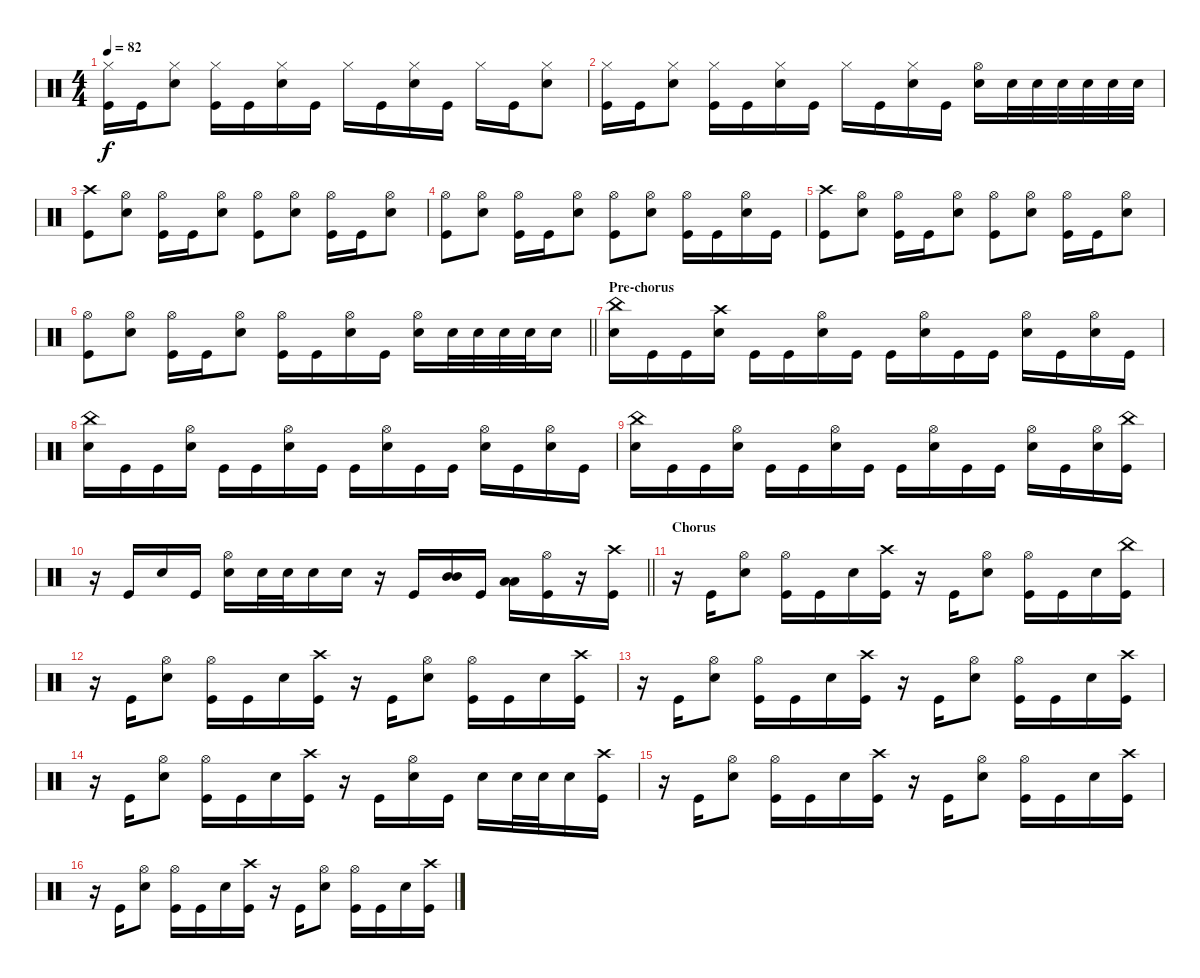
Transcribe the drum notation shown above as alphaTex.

\track "" {instrument percussion}
\staff {score}
\articulation defaults
\ts (4 4)
\tempo 82
\clef neutral
\ks c
("Hi-Hat (closed)" "Kick (hit)").16{dy f} "Kick (hit)".16 ("Snare (hit) 2" "Hi-Hat (closed)").8 ("Hi-Hat (closed)" "Kick (hit)").16 "Kick (hit)".16 ("Snare (hit) 2" "Hi-Hat (closed)").16 "Kick (hit)".16 "Hi-Hat (closed)".16 "Kick (hit)".16 ("Snare (hit) 2" "Hi-Hat (closed)").16 "Kick (hit)".16 "Hi-Hat (closed)".16 "Kick (hit)".16 ("Snare (hit) 2" "Hi-Hat (closed)").8 |
("Hi-Hat (closed)" "Kick (hit)").16 "Kick (hit)".16 ("Snare (hit) 2" "Hi-Hat (closed)").8 ("Hi-Hat (closed)" "Kick (hit)").16 "Kick (hit)".16 ("Snare (hit) 2" "Hi-Hat (closed)").16 "Kick (hit)".16 "Hi-Hat (closed)".16 "Kick (hit)".16 ("Snare (hit) 2" "Hi-Hat (closed)").16 "Kick (hit)".16 ("Snare (hit) 2" "Hi-Hat (open)").16 "Snare (hit) 2".32 "Snare (hit) 2".32 "Snare (hit) 2".32 "Snare (hit) 2".32 "Snare (hit) 2".32 "Snare (hit) 2".32 |
("Crash high (hit)" "Kick (hit)").8{txt ""} ("Snare (hit) 2" "Hi-Hat (open)").8 ("Hi-Hat (open)" "Kick (hit)").16 "Kick (hit)".16 ("Snare (hit) 2" "Hi-Hat (open)").8 ("Kick (hit)" "Hi-Hat (open)").8 ("Snare (hit) 2" "Hi-Hat (open)").8 ("Kick (hit)" "Hi-Hat (open)").16 "Kick (hit)".16 ("Snare (hit) 2" "Hi-Hat (open)").8 |
("Hi-Hat (open)" "Kick (hit)").8 ("Snare (hit) 2" "Hi-Hat (open)").8 ("Hi-Hat (open)" "Kick (hit)").16 "Kick (hit)".16 ("Snare (hit) 2" "Hi-Hat (open)").8 ("Kick (hit)" "Hi-Hat (open)").8 ("Snare (hit) 2" "Hi-Hat (open)").8 ("Kick (hit)" "Hi-Hat (open)").16 "Kick (hit)".16 ("Snare (hit) 2" "Hi-Hat (open)").16 "Kick (hit)".16 |
("Crash high (hit)" "Kick (hit)").8 ("Snare (hit) 2" "Hi-Hat (open)").8 ("Hi-Hat (open)" "Kick (hit)").16 "Kick (hit)".16 ("Snare (hit) 2" "Hi-Hat (open)").8 ("Kick (hit)" "Hi-Hat (open)").8 ("Snare (hit) 2" "Hi-Hat (open)").8 ("Kick (hit)" "Hi-Hat (open)").16 "Kick (hit)".16 ("Snare (hit) 2" "Hi-Hat (open)").8 |
\barLineRight lightlight
("Hi-Hat (open)" "Kick (hit)").8 ("Snare (hit) 2" "Hi-Hat (open)").8 ("Hi-Hat (open)" "Kick (hit)").16 "Kick (hit)".16 ("Snare (hit) 2" "Hi-Hat (open)").8 ("Hi-Hat (open)" "Kick (hit)").16 "Kick (hit)".16 ("Snare (hit) 2" "Hi-Hat (open)").16 "Kick (hit)".16 ("Snare (hit) 2" "Hi-Hat (open)").16 "Snare (hit) 2".32 "Snare (hit) 2".32 "Snare (hit) 2".32 "Snare (hit) 2".32 "Snare (hit) 2".16 |
\section ("" "Pre-chorus")
("China (hit)" "Snare (hit) 2").16{txt ""} "Kick (hit)".16 "Kick (hit)".16 ("Snare (hit) 2" "Crash high (hit)").16 "Kick (hit)".16 "Kick (hit)".16 ("Hi-Hat (open)" "Snare (hit) 2").16 "Kick (hit)".16 "Kick (hit)".16 ("Hi-Hat (open)" "Snare (hit) 2").16 "Kick (hit)".16 "Kick (hit)".16 ("Hi-Hat (open)" "Snare (hit) 2").16 "Kick (hit)".16 ("Hi-Hat (open)" "Snare (hit) 2").16 "Kick (hit)".16 |
("China (hit)" "Snare (hit) 2").16 "Kick (hit)".16 "Kick (hit)".16 ("Hi-Hat (open)" "Snare (hit) 2").16 "Kick (hit)".16 "Kick (hit)".16 ("Snare (hit) 2" "Hi-Hat (open)").16 "Kick (hit)".16 "Kick (hit)".16 ("Snare (hit) 2" "Hi-Hat (open)").16 "Kick (hit)".16 "Kick (hit)".16 ("Hi-Hat (open)" "Snare (hit) 2").16 "Kick (hit)".16 ("Hi-Hat (open)" "Snare (hit) 2").16 "Kick (hit)".16 |
("China (hit)" "Snare (hit) 2").16 "Kick (hit)".16 "Kick (hit)".16 ("Hi-Hat (open)" "Snare (hit) 2").16 "Kick (hit)".16 "Kick (hit)".16 ("Hi-Hat (open)" "Snare (hit) 2").16 "Kick (hit)".16 "Kick (hit)".16 ("Hi-Hat (open)" "Snare (hit) 2").16 "Kick (hit)".16 "Kick (hit)".16 ("Hi-Hat (open)" "Snare (hit) 2").16 "Kick (hit)".16 ("Hi-Hat (open)" "Snare (hit) 2").16 ("Kick (hit)" "China (hit)").16 |
\barLineRight lightlight
r.16 "Kick (hit)".16 "Snare (hit) 2".16 "Kick (hit)".16 ("Snare (hit) 2" "Hi-Hat (open)").16 "Snare (hit) 2".32 "Snare (hit) 2".32 "Snare (hit) 2".16 "Snare (hit) 2".16 r.16 "Kick (hit)".16 ("Mid Tom (hit)" "Mid Tom (hit)").16 "Kick (hit)".16 ("Low Tom (hit)" "Low Tom (hit)").16 ("Kick (hit)" "Hi-Hat (open)").16 r.16 ("Crash high (hit)" "Kick (hit)").16 |
\section ("" "Chorus")
r.16{txt ""} "Kick (hit)".16 ("Snare (hit) 2" "Hi-Hat (open)").8 ("Kick (hit)" "Hi-Hat (open)").16 "Kick (hit)".16 "Snare (hit) 2".16 ("Kick (hit)" "Crash high (hit)").16 r.16 "Kick (hit)".16 ("Snare (hit) 2" "Hi-Hat (open)").8 ("Kick (hit)" "Hi-Hat (open)").16 "Kick (hit)".16 "Snare (hit) 2".16 ("Kick (hit)" "China (hit)").16 |
r.16 "Kick (hit)".16 ("Snare (hit) 2" "Hi-Hat (open)").8 ("Kick (hit)" "Hi-Hat (open)").16 "Kick (hit)".16 "Snare (hit) 2".16 ("Kick (hit)" "Crash high (hit)").16 r.16 "Kick (hit)".16 ("Snare (hit) 2" "Hi-Hat (open)").8 ("Kick (hit)" "Hi-Hat (open)").16 "Kick (hit)".16 "Snare (hit) 2".16 ("Kick (hit)" "Crash high (hit)").16 |
r.16 "Kick (hit)".16 ("Snare (hit) 2" "Hi-Hat (open)").8 ("Kick (hit)" "Hi-Hat (open)").16 "Kick (hit)".16 "Snare (hit) 2".16 ("Kick (hit)" "Crash high (hit)").16 r.16 "Kick (hit)".16 ("Snare (hit) 2" "Hi-Hat (open)").8 ("Kick (hit)" "Hi-Hat (open)").16 "Kick (hit)".16 "Snare (hit) 2".16 ("Kick (hit)" "Crash high (hit)").16 |
r.16 "Kick (hit)".16 ("Snare (hit) 2" "Hi-Hat (open)").8 ("Kick (hit)" "Hi-Hat (open)").16 "Kick (hit)".16 "Snare (hit) 2".16 ("Kick (hit)" "Crash high (hit)").16 r.16 "Kick (hit)".16 ("Snare (hit) 2" "Hi-Hat (open)").16 "Kick (hit)".16 "Snare (hit) 2".16 "Snare (hit) 2".32 "Snare (hit) 2".32 "Snare (hit) 2".16 ("Kick (hit)" "Crash high (hit)").16 |
r.16 "Kick (hit)".16 ("Snare (hit) 2" "Hi-Hat (open)").8 ("Kick (hit)" "Hi-Hat (open)").16 "Kick (hit)".16 "Snare (hit) 2".16 ("Kick (hit)" "Crash high (hit)").16 r.16 "Kick (hit)".16 ("Snare (hit) 2" "Hi-Hat (open)").8 ("Kick (hit)" "Hi-Hat (open)").16 "Kick (hit)".16 "Snare (hit) 2".16 ("Kick (hit)" "Crash high (hit)").16 |
r.16 "Kick (hit)".16 ("Snare (hit) 2" "Hi-Hat (open)").8 ("Kick (hit)" "Hi-Hat (open)").16 "Kick (hit)".16 "Snare (hit) 2".16 ("Kick (hit)" "Crash high (hit)").16 r.16 "Kick (hit)".16 ("Snare (hit) 2" "Hi-Hat (open)").8 ("Kick (hit)" "Hi-Hat (open)").16 "Kick (hit)".16 "Snare (hit) 2".16 ("Kick (hit)" "Crash high (hit)").16
